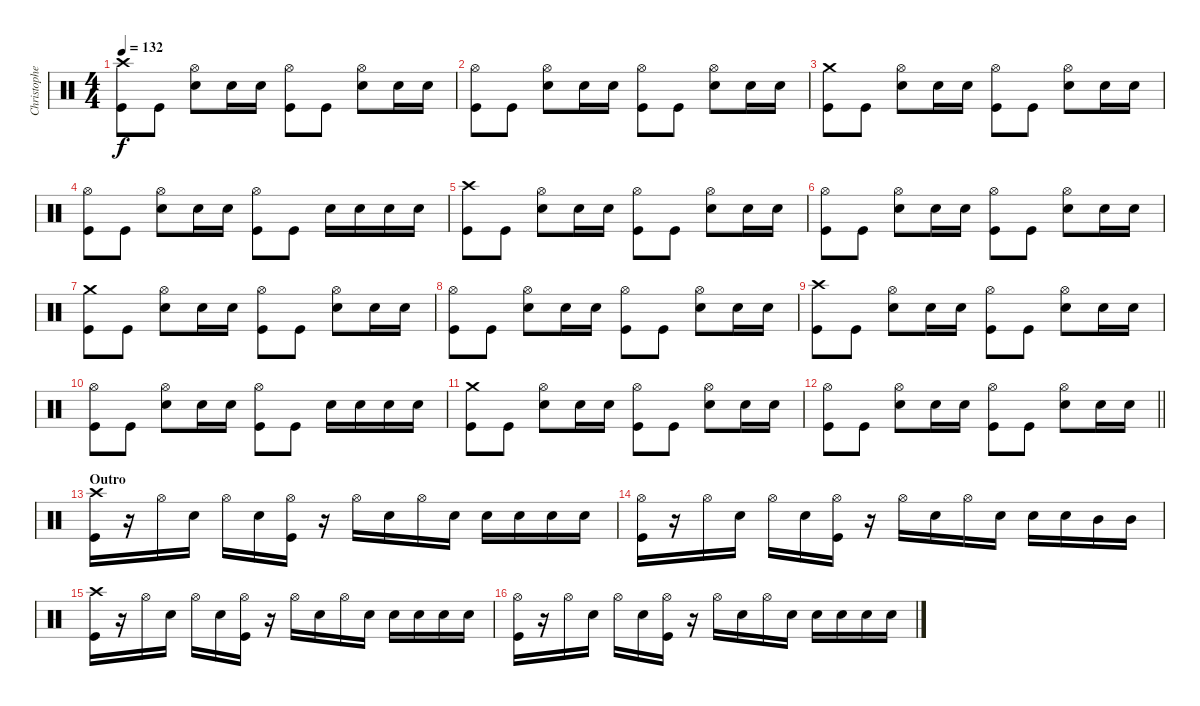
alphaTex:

\track ("Christopher - Drums" "Christophe") {instrument percussion}
\staff {score}
\articulation defaults
\ts (4 4)
\tempo 132
\clef neutral
\ks c
("Crash high (hit)" "Kick (hit)").8{dy f} "Kick (hit)".8 ("Hi-Hat (open)" "Snare (hit) 2").8 "Snare (hit) 2".16 "Snare (hit) 2".16 ("Hi-Hat (open)" "Kick (hit)").8 "Kick (hit)".8 ("Hi-Hat (open)" "Snare (hit) 2").8 "Snare (hit) 2".16 "Snare (hit) 2".16 |
("Hi-Hat (open)" "Kick (hit)").8 "Kick (hit)".8 ("Hi-Hat (open)" "Snare (hit) 2").8 "Snare (hit) 2".16 "Snare (hit) 2".16 ("Hi-Hat (open)" "Kick (hit)").8 "Kick (hit)".8 ("Hi-Hat (open)" "Snare (hit) 2").8 "Snare (hit) 2".16 "Snare (hit) 2".16 |
("Crash medium (hit)" "Kick (hit)").8 "Kick (hit)".8 ("Hi-Hat (open)" "Snare (hit) 2").8 "Snare (hit) 2".16 "Snare (hit) 2".16 ("Hi-Hat (open)" "Kick (hit)").8 "Kick (hit)".8 ("Hi-Hat (open)" "Snare (hit) 2").8 "Snare (hit) 2".16 "Snare (hit) 2".16 |
("Hi-Hat (open)" "Kick (hit)").8 "Kick (hit)".8 ("Hi-Hat (open)" "Snare (hit) 2").8 "Snare (hit) 2".16 "Snare (hit) 2".16 ("Hi-Hat (open)" "Kick (hit)").8 "Kick (hit)".8 "Snare (hit) 2".16 "Snare (hit) 2".16 "Snare (hit) 2".16 "Snare (hit) 2".16 |
("Crash high (hit)" "Kick (hit)").8 "Kick (hit)".8 ("Hi-Hat (open)" "Snare (hit) 2").8 "Snare (hit) 2".16 "Snare (hit) 2".16 ("Hi-Hat (open)" "Kick (hit)").8 "Kick (hit)".8 ("Hi-Hat (open)" "Snare (hit) 2").8 "Snare (hit) 2".16 "Snare (hit) 2".16 |
("Hi-Hat (open)" "Kick (hit)").8 "Kick (hit)".8 ("Hi-Hat (open)" "Snare (hit) 2").8 "Snare (hit) 2".16 "Snare (hit) 2".16 ("Hi-Hat (open)" "Kick (hit)").8 "Kick (hit)".8 ("Hi-Hat (open)" "Snare (hit) 2").8 "Snare (hit) 2".16 "Snare (hit) 2".16 |
("Crash medium (hit)" "Kick (hit)").8 "Kick (hit)".8 ("Hi-Hat (open)" "Snare (hit) 2").8 "Snare (hit) 2".16 "Snare (hit) 2".16 ("Hi-Hat (open)" "Kick (hit)").8 "Kick (hit)".8 ("Hi-Hat (open)" "Snare (hit) 2").8 "Snare (hit) 2".16 "Snare (hit) 2".16 |
("Hi-Hat (open)" "Kick (hit)").8 "Kick (hit)".8 ("Hi-Hat (open)" "Snare (hit) 2").8 "Snare (hit) 2".16 "Snare (hit) 2".16 ("Hi-Hat (open)" "Kick (hit)").8 "Kick (hit)".8 ("Hi-Hat (open)" "Snare (hit) 2").8 "Snare (hit) 2".16 "Snare (hit) 2".16 |
("Crash high (hit)" "Kick (hit)").8 "Kick (hit)".8 ("Hi-Hat (open)" "Snare (hit) 2").8 "Snare (hit) 2".16 "Snare (hit) 2".16 ("Hi-Hat (open)" "Kick (hit)").8 "Kick (hit)".8 ("Hi-Hat (open)" "Snare (hit) 2").8 "Snare (hit) 2".16 "Snare (hit) 2".16 |
("Hi-Hat (open)" "Kick (hit)").8 "Kick (hit)".8 ("Hi-Hat (open)" "Snare (hit) 2").8 "Snare (hit) 2".16 "Snare (hit) 2".16 ("Hi-Hat (open)" "Kick (hit)").8 "Kick (hit)".8 "Snare (hit) 2".16 "Snare (hit) 2".16 "Snare (hit) 2".16 "Snare (hit) 2".16 |
("Crash medium (hit)" "Kick (hit)").8 "Kick (hit)".8 ("Hi-Hat (open)" "Snare (hit) 2").8 "Snare (hit) 2".16 "Snare (hit) 2".16 ("Hi-Hat (open)" "Kick (hit)").8 "Kick (hit)".8 ("Hi-Hat (open)" "Snare (hit) 2").8 "Snare (hit) 2".16 "Snare (hit) 2".16 |
\barLineRight lightlight
("Hi-Hat (open)" "Kick (hit)").8 "Kick (hit)".8 ("Hi-Hat (open)" "Snare (hit) 2").8 "Snare (hit) 2".16 "Snare (hit) 2".16 ("Hi-Hat (open)" "Kick (hit)").8 "Kick (hit)".8 ("Hi-Hat (open)" "Snare (hit) 2").8 "Snare (hit) 2".16 "Snare (hit) 2".16 |
\section ("" "Outro")
("Crash high (hit)" "Kick (hit)").16 r.16 "Hi-Hat (open)".16 "Snare (hit) 2".16 "Hi-Hat (open)".16 "Snare (hit) 2".16 ("Hi-Hat (open)" "Kick (hit)").16 r.16 "Hi-Hat (open)".16 "Snare (hit) 2".16 "Hi-Hat (open)".16 "Snare (hit) 2".16 "Snare (hit) 2".16 "Snare (hit) 2".16 "Snare (hit) 2".16 "Snare (hit) 2".16 |
("Hi-Hat (open)" "Kick (hit)").16 r.16 "Hi-Hat (open)".16 "Snare (hit) 2".16 "Hi-Hat (open)".16 "Snare (hit) 2".16 ("Hi-Hat (open)" "Kick (hit)").16 r.16 "Hi-Hat (open)".16 "Snare (hit) 2".16 "Hi-Hat (open)".16 "Snare (hit) 2".16 "Snare (hit) 2".16 "Snare (hit) 2".16 "Mid Tom (hit)".16 "Mid Tom (hit)".16 |
("Crash high (hit)" "Kick (hit)").16 r.16 "Hi-Hat (open)".16 "Snare (hit) 2".16 "Hi-Hat (open)".16 "Snare (hit) 2".16 ("Hi-Hat (open)" "Kick (hit)").16 r.16 "Hi-Hat (open)".16 "Snare (hit) 2".16 "Hi-Hat (open)".16 "Snare (hit) 2".16 "Snare (hit) 2".16 "Snare (hit) 2".16 "Snare (hit) 2".16 "Snare (hit) 2".16 |
("Hi-Hat (open)" "Kick (hit)").16 r.16 "Hi-Hat (open)".16 "Snare (hit) 2".16 "Hi-Hat (open)".16 "Snare (hit) 2".16 ("Hi-Hat (open)" "Kick (hit)").16 r.16 "Hi-Hat (open)".16 "Snare (hit) 2".16 "Hi-Hat (open)".16 "Snare (hit) 2".16 "Snare (hit) 2".16 "Snare (hit) 2".16 "Snare (hit) 2".16 "Snare (hit) 2".16
